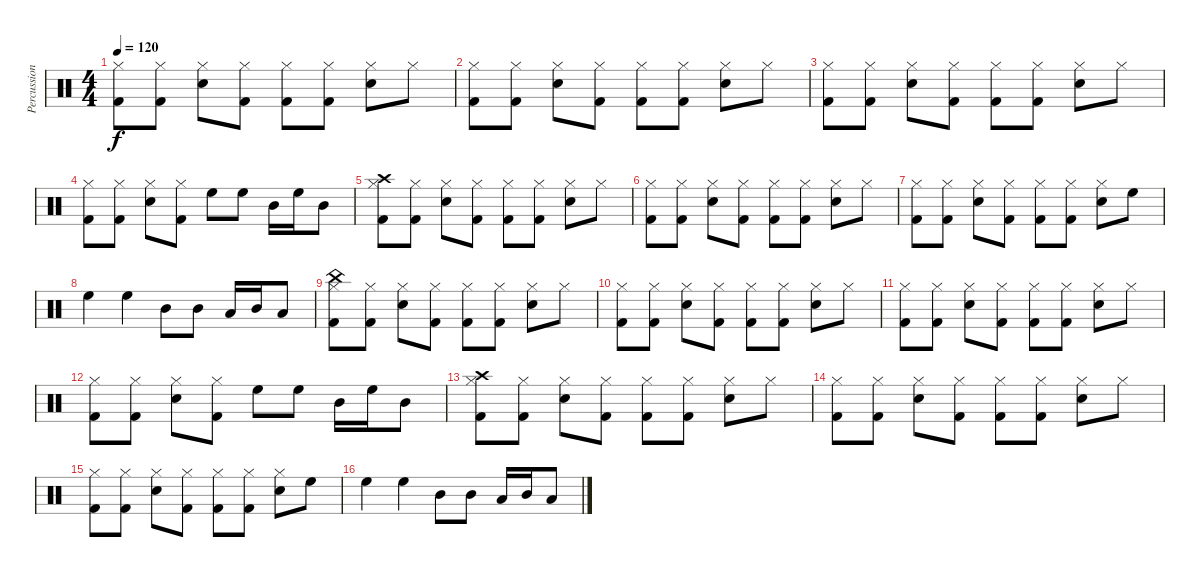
\track ("Percussion" "Percussion") {instrument percussion}
\staff {score}
\articulation defaults
\ts (4 4)
\tempo 120
\clef neutral
\ks c
("Hi-Hat (closed)" "Kick (hit) 2").8{dy f} ("Hi-Hat (closed)" "Kick (hit) 2").8 ("Hi-Hat (closed)" "Snare (hit) 2").8 ("Hi-Hat (closed)" "Kick (hit) 2").8 ("Hi-Hat (closed)" "Kick (hit) 2").8 ("Hi-Hat (closed)" "Kick (hit) 2").8 ("Hi-Hat (closed)" "Snare (hit) 2").8 "Hi-Hat (closed)".8 |
("Hi-Hat (closed)" "Kick (hit) 2").8 ("Hi-Hat (closed)" "Kick (hit) 2").8 ("Hi-Hat (closed)" "Snare (hit) 2").8 ("Hi-Hat (closed)" "Kick (hit) 2").8 ("Hi-Hat (closed)" "Kick (hit) 2").8 ("Hi-Hat (closed)" "Kick (hit) 2").8 ("Hi-Hat (closed)" "Snare (hit) 2").8 "Hi-Hat (closed)".8 |
("Hi-Hat (closed)" "Kick (hit) 2").8 ("Hi-Hat (closed)" "Kick (hit) 2").8 ("Hi-Hat (closed)" "Snare (hit) 2").8 ("Hi-Hat (closed)" "Kick (hit) 2").8 ("Hi-Hat (closed)" "Kick (hit) 2").8 ("Hi-Hat (closed)" "Kick (hit) 2").8 ("Hi-Hat (closed)" "Snare (hit) 2").8 "Hi-Hat (closed)".8 |
("Hi-Hat (closed)" "Kick (hit) 2").8 ("Hi-Hat (closed)" "Kick (hit) 2").8 ("Hi-Hat (closed)" "Snare (hit) 2").8 ("Hi-Hat (closed)" "Kick (hit) 2").8 "High Floor Tom (hit)".8 "High Floor Tom (hit)".8 "Mid Tom (hit)".16 "High Floor Tom (hit)".16 "Mid Tom (hit)".8 |
("Crash high (hit)" "Hi-Hat (closed)" "Kick (hit) 2").8 ("Hi-Hat (closed)" "Kick (hit) 2").8 ("Hi-Hat (closed)" "Snare (hit) 2").8 ("Hi-Hat (closed)" "Kick (hit) 2").8 ("Hi-Hat (closed)" "Kick (hit) 2").8 ("Hi-Hat (closed)" "Kick (hit) 2").8 ("Hi-Hat (closed)" "Snare (hit) 2").8 "Hi-Hat (closed)".8 |
("Hi-Hat (closed)" "Kick (hit) 2").8 ("Hi-Hat (closed)" "Kick (hit) 2").8 ("Hi-Hat (closed)" "Snare (hit) 2").8 ("Hi-Hat (closed)" "Kick (hit) 2").8 ("Hi-Hat (closed)" "Kick (hit) 2").8 ("Hi-Hat (closed)" "Kick (hit) 2").8 ("Hi-Hat (closed)" "Snare (hit) 2").8 "Hi-Hat (closed)".8 |
("Hi-Hat (closed)" "Kick (hit) 2").8 ("Hi-Hat (closed)" "Kick (hit) 2").8 ("Hi-Hat (closed)" "Snare (hit) 2").8 ("Hi-Hat (closed)" "Kick (hit) 2").8 ("Hi-Hat (closed)" "Kick (hit) 2").8 ("Hi-Hat (closed)" "Kick (hit) 2").8 ("Hi-Hat (closed)" "Snare (hit) 2").8 "High Floor Tom (hit)".8 |
"High Floor Tom (hit)".4 "High Floor Tom (hit)".4 "Mid Tom (hit)".8 "Mid Tom (hit)".8 "Low Tom (hit)".16 "Mid Tom (hit)".16 "Low Tom (hit)".8 |
("China (hit)" "Hi-Hat (closed)" "Kick (hit) 2").8 ("Hi-Hat (closed)" "Kick (hit) 2").8 ("Hi-Hat (closed)" "Snare (hit) 2").8 ("Hi-Hat (closed)" "Kick (hit) 2").8 ("Hi-Hat (closed)" "Kick (hit) 2").8 ("Hi-Hat (closed)" "Kick (hit) 2").8 ("Hi-Hat (closed)" "Snare (hit) 2").8 "Hi-Hat (closed)".8 |
("Hi-Hat (closed)" "Kick (hit) 2").8 ("Hi-Hat (closed)" "Kick (hit) 2").8 ("Hi-Hat (closed)" "Snare (hit) 2").8 ("Hi-Hat (closed)" "Kick (hit) 2").8 ("Hi-Hat (closed)" "Kick (hit) 2").8 ("Hi-Hat (closed)" "Kick (hit) 2").8 ("Hi-Hat (closed)" "Snare (hit) 2").8 "Hi-Hat (closed)".8 |
("Hi-Hat (closed)" "Kick (hit) 2").8 ("Hi-Hat (closed)" "Kick (hit) 2").8 ("Hi-Hat (closed)" "Snare (hit) 2").8 ("Hi-Hat (closed)" "Kick (hit) 2").8 ("Hi-Hat (closed)" "Kick (hit) 2").8 ("Hi-Hat (closed)" "Kick (hit) 2").8 ("Hi-Hat (closed)" "Snare (hit) 2").8 "Hi-Hat (closed)".8 |
("Hi-Hat (closed)" "Kick (hit) 2").8 ("Hi-Hat (closed)" "Kick (hit) 2").8 ("Hi-Hat (closed)" "Snare (hit) 2").8 ("Hi-Hat (closed)" "Kick (hit) 2").8 "High Floor Tom (hit)".8 "High Floor Tom (hit)".8 "Mid Tom (hit)".16 "High Floor Tom (hit)".16 "Mid Tom (hit)".8 |
("Crash high (hit)" "Hi-Hat (closed)" "Kick (hit) 2").8 ("Hi-Hat (closed)" "Kick (hit) 2").8 ("Hi-Hat (closed)" "Snare (hit) 2").8 ("Hi-Hat (closed)" "Kick (hit) 2").8 ("Hi-Hat (closed)" "Kick (hit) 2").8 ("Hi-Hat (closed)" "Kick (hit) 2").8 ("Hi-Hat (closed)" "Snare (hit) 2").8 "Hi-Hat (closed)".8 |
("Hi-Hat (closed)" "Kick (hit) 2").8 ("Hi-Hat (closed)" "Kick (hit) 2").8 ("Hi-Hat (closed)" "Snare (hit) 2").8 ("Hi-Hat (closed)" "Kick (hit) 2").8 ("Hi-Hat (closed)" "Kick (hit) 2").8 ("Hi-Hat (closed)" "Kick (hit) 2").8 ("Hi-Hat (closed)" "Snare (hit) 2").8 "Hi-Hat (closed)".8 |
("Hi-Hat (closed)" "Kick (hit) 2").8 ("Hi-Hat (closed)" "Kick (hit) 2").8 ("Hi-Hat (closed)" "Snare (hit) 2").8 ("Hi-Hat (closed)" "Kick (hit) 2").8 ("Hi-Hat (closed)" "Kick (hit) 2").8 ("Hi-Hat (closed)" "Kick (hit) 2").8 ("Hi-Hat (closed)" "Snare (hit) 2").8 "High Floor Tom (hit)".8 |
"High Floor Tom (hit)".4 "High Floor Tom (hit)".4 "Mid Tom (hit)".8 "Mid Tom (hit)".8 "Low Tom (hit)".16 "Mid Tom (hit)".16 "Low Tom (hit)".8
